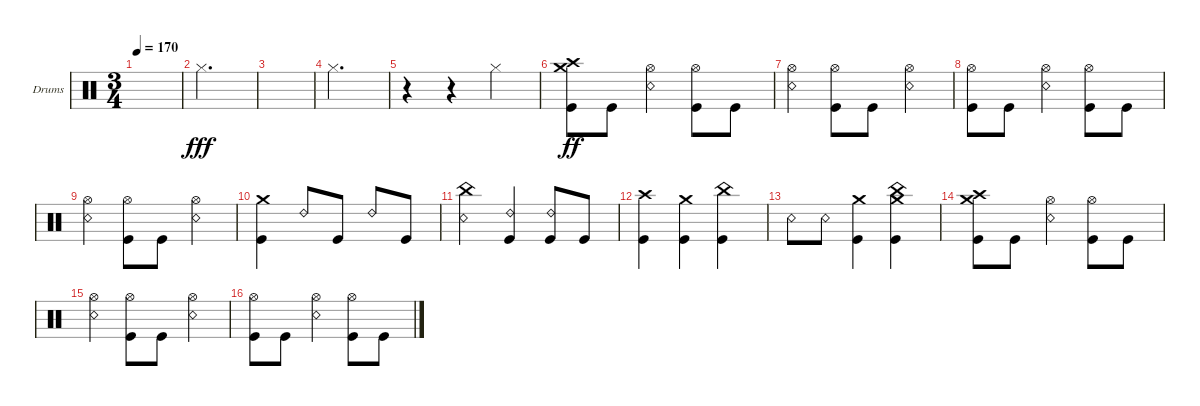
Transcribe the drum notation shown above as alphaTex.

\bracketExtendMode groupsimilarinstruments
\firstSystemTrackNameOrientation horizontal
\otherSystemsTrackNameOrientation horizontal
\track ("Kaleb - Drums" "Drums") {instrument percussion}
\staff {score}
\articulation defaults
\ts (3 4)
\tempo 170
\clef neutral
\ks c
|
"Hi-Hat (closed)".2{d dy fff} |
|
"Hi-Hat (closed)".2{d} |
r.4 r.4 "Hi-Hat (closed)".4 |
("Kick (hit)" "Crash medium (hit)" "Crash high (hit)").8{dy ff} "Kick (hit)".8 ("Hi-Hat (open)" "Snare (rim shot)").4 ("Kick (hit)" "Hi-Hat (open)").8 "Kick (hit)".8 |
("Hi-Hat (open)" "Snare (rim shot)").4 ("Kick (hit)" "Hi-Hat (open)").8 "Kick (hit)".8 ("Hi-Hat (open)" "Snare (rim shot)").4 |
("Kick (hit)" "Hi-Hat (open)").8 "Kick (hit)".8 ("Hi-Hat (open)" "Snare (rim shot)").4 ("Kick (hit)" "Hi-Hat (open)").8 "Kick (hit)".8 |
("Hi-Hat (open)" "Snare (rim shot)").4 ("Kick (hit)" "Hi-Hat (open)").8 "Kick (hit)".8 ("Hi-Hat (open)" "Snare (rim shot)").4 |
("Kick (hit)" "Crash medium (hit)").4 "Ride (bell) 2".8 "Kick (hit)".8 "Ride (bell) 2".8 "Kick (hit)".8 |
("Snare (rim shot)" "China (hit)").4 ("Ride (bell) 2" "Kick (hit)").4 ("Ride (bell) 2" "Kick (hit)").8 "Kick (hit)".8 |
("Kick (hit)" "Crash high (hit)").4 ("Kick (hit)" "Crash medium (hit)").4 ("Kick (hit)" "China (hit)").4 |
"Snare (rim shot)".8 "Snare (rim shot)".8 ("Kick (hit)" "Crash medium (hit)").4 ("Kick (hit)" "Crash medium (hit)" "China (hit)").4 |
("Kick (hit)" "Crash medium (hit)" "Crash high (hit)").8 "Kick (hit)".8 ("Hi-Hat (open)" "Snare (rim shot)").4 ("Kick (hit)" "Hi-Hat (open)").8 "Kick (hit)".8 |
("Hi-Hat (open)" "Snare (rim shot)").4 ("Kick (hit)" "Hi-Hat (open)").8 "Kick (hit)".8 ("Hi-Hat (open)" "Snare (rim shot)").4 |
("Kick (hit)" "Hi-Hat (open)").8 "Kick (hit)".8 ("Hi-Hat (open)" "Snare (rim shot)").4 ("Kick (hit)" "Hi-Hat (open)").8 "Kick (hit)".8
